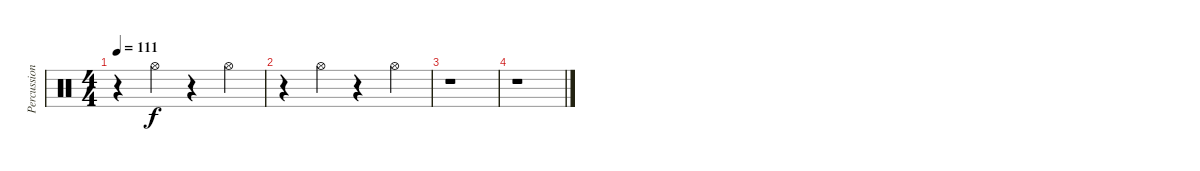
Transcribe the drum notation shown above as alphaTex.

\track ("Percussions" "Percussion") {instrument percussion}
\staff {score}
\articulation defaults
\ts (4 4)
\tempo 111
\clef neutral
\ks c
r.4{dy f} "Hi-Hat (open)".4 r.4 "Hi-Hat (open)".4 |
r.4 "Hi-Hat (open)".4 r.4 "Hi-Hat (open)".4 |
r.1 |
r.1
